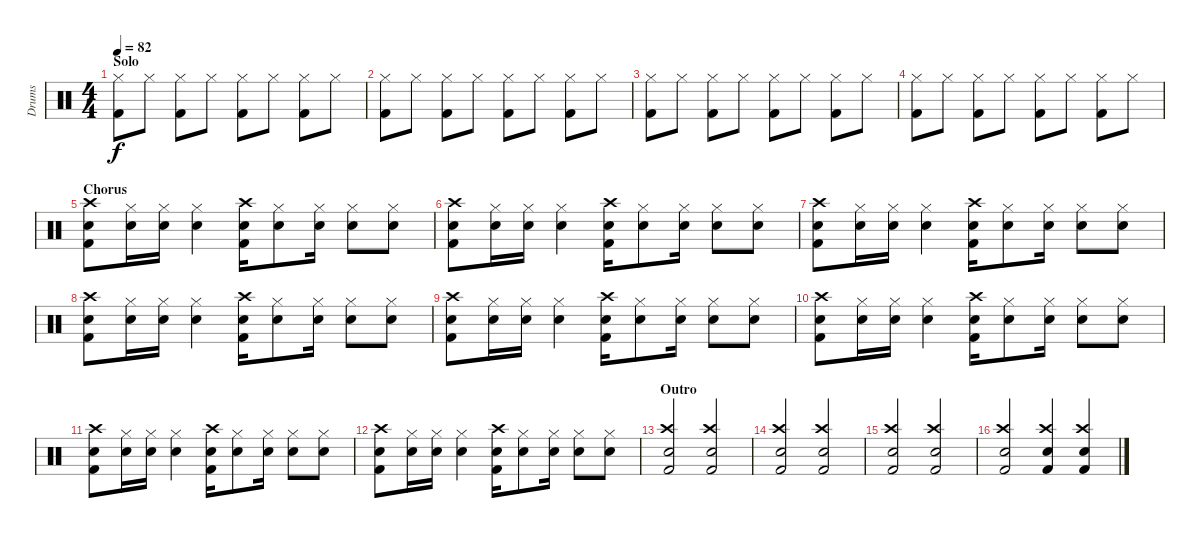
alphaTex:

\track ("Drums" "Drums") {instrument percussion}
\staff {score}
\articulation defaults
\ts (4 4)
\section ("" "Solo")
\tempo 82
\clef neutral
\ks c
("Hi-Hat (closed)" "Kick (hit) 2").8{dy f} "Hi-Hat (closed)".8 ("Hi-Hat (closed)" "Kick (hit) 2").8 "Hi-Hat (closed)".8 ("Hi-Hat (closed)" "Kick (hit) 2").8 "Hi-Hat (closed)".8 ("Hi-Hat (closed)" "Kick (hit) 2").8 "Hi-Hat (closed)".8 |
("Hi-Hat (closed)" "Kick (hit) 2").8 "Hi-Hat (closed)".8 ("Hi-Hat (closed)" "Kick (hit) 2").8 "Hi-Hat (closed)".8 ("Hi-Hat (closed)" "Kick (hit) 2").8 "Hi-Hat (closed)".8 ("Hi-Hat (closed)" "Kick (hit) 2").8 "Hi-Hat (closed)".8 |
("Hi-Hat (closed)" "Kick (hit) 2").8 "Hi-Hat (closed)".8 ("Hi-Hat (closed)" "Kick (hit) 2").8 "Hi-Hat (closed)".8 ("Hi-Hat (closed)" "Kick (hit) 2").8 "Hi-Hat (closed)".8 ("Hi-Hat (closed)" "Kick (hit) 2").8 "Hi-Hat (closed)".8 |
("Hi-Hat (closed)" "Kick (hit) 2").8 "Hi-Hat (closed)".8 ("Hi-Hat (closed)" "Kick (hit) 2").8 "Hi-Hat (closed)".8 ("Hi-Hat (closed)" "Kick (hit) 2").8 "Hi-Hat (closed)".8 ("Hi-Hat (closed)" "Kick (hit) 2").8 "Hi-Hat (closed)".8 |
\section ("" "Chorus")
("Crash high (hit)" "Snare (hit) 2" "Kick (hit) 2").8 ("Hi-Hat (closed)" "Snare (hit) 2").16 ("Hi-Hat (closed)" "Snare (hit) 2").16 ("Hi-Hat (closed)" "Snare (hit) 2").4 ("Crash high (hit)" "Snare (hit) 2" "Kick (hit) 2").16 ("Hi-Hat (closed)" "Snare (hit) 2").8 ("Hi-Hat (closed)" "Snare (hit) 2").16 ("Hi-Hat (closed)" "Snare (hit) 2").8 ("Hi-Hat (closed)" "Snare (hit) 2").8 |
("Crash high (hit)" "Snare (hit) 2" "Kick (hit) 2").8 ("Hi-Hat (closed)" "Snare (hit) 2").16 ("Hi-Hat (closed)" "Snare (hit) 2").16 ("Hi-Hat (closed)" "Snare (hit) 2").4 ("Crash high (hit)" "Snare (hit) 2" "Kick (hit) 2").16 ("Hi-Hat (closed)" "Snare (hit) 2").8 ("Hi-Hat (closed)" "Snare (hit) 2").16 ("Hi-Hat (closed)" "Snare (hit) 2").8 ("Hi-Hat (closed)" "Snare (hit) 2").8 |
("Crash high (hit)" "Snare (hit) 2" "Kick (hit) 2").8 ("Hi-Hat (closed)" "Snare (hit) 2").16 ("Hi-Hat (closed)" "Snare (hit) 2").16 ("Hi-Hat (closed)" "Snare (hit) 2").4 ("Crash high (hit)" "Snare (hit) 2" "Kick (hit) 2").16 ("Hi-Hat (closed)" "Snare (hit) 2").8 ("Hi-Hat (closed)" "Snare (hit) 2").16 ("Hi-Hat (closed)" "Snare (hit) 2").8 ("Hi-Hat (closed)" "Snare (hit) 2").8 |
("Crash high (hit)" "Snare (hit) 2" "Kick (hit) 2").8 ("Hi-Hat (closed)" "Snare (hit) 2").16 ("Hi-Hat (closed)" "Snare (hit) 2").16 ("Hi-Hat (closed)" "Snare (hit) 2").4 ("Crash high (hit)" "Snare (hit) 2" "Kick (hit) 2").16 ("Hi-Hat (closed)" "Snare (hit) 2").8 ("Hi-Hat (closed)" "Snare (hit) 2").16 ("Hi-Hat (closed)" "Snare (hit) 2").8 ("Hi-Hat (closed)" "Snare (hit) 2").8 |
("Crash high (hit)" "Snare (hit) 2" "Kick (hit) 2").8 ("Hi-Hat (closed)" "Snare (hit) 2").16 ("Hi-Hat (closed)" "Snare (hit) 2").16 ("Hi-Hat (closed)" "Snare (hit) 2").4 ("Crash high (hit)" "Snare (hit) 2" "Kick (hit) 2").16 ("Hi-Hat (closed)" "Snare (hit) 2").8 ("Hi-Hat (closed)" "Snare (hit) 2").16 ("Hi-Hat (closed)" "Snare (hit) 2").8 ("Hi-Hat (closed)" "Snare (hit) 2").8 |
("Crash high (hit)" "Snare (hit) 2" "Kick (hit) 2").8 ("Hi-Hat (closed)" "Snare (hit) 2").16 ("Hi-Hat (closed)" "Snare (hit) 2").16 ("Hi-Hat (closed)" "Snare (hit) 2").4 ("Crash high (hit)" "Snare (hit) 2" "Kick (hit) 2").16 ("Hi-Hat (closed)" "Snare (hit) 2").8 ("Hi-Hat (closed)" "Snare (hit) 2").16 ("Hi-Hat (closed)" "Snare (hit) 2").8 ("Hi-Hat (closed)" "Snare (hit) 2").8 |
("Crash high (hit)" "Snare (hit) 2" "Kick (hit) 2").8 ("Hi-Hat (closed)" "Snare (hit) 2").16 ("Hi-Hat (closed)" "Snare (hit) 2").16 ("Hi-Hat (closed)" "Snare (hit) 2").4 ("Crash high (hit)" "Snare (hit) 2" "Kick (hit) 2").16 ("Hi-Hat (closed)" "Snare (hit) 2").8 ("Hi-Hat (closed)" "Snare (hit) 2").16 ("Hi-Hat (closed)" "Snare (hit) 2").8 ("Hi-Hat (closed)" "Snare (hit) 2").8 |
("Crash high (hit)" "Snare (hit) 2" "Kick (hit) 2").8 ("Hi-Hat (closed)" "Snare (hit) 2").16 ("Hi-Hat (closed)" "Snare (hit) 2").16 ("Hi-Hat (closed)" "Snare (hit) 2").4 ("Crash high (hit)" "Snare (hit) 2" "Kick (hit) 2").16 ("Hi-Hat (closed)" "Snare (hit) 2").8 ("Hi-Hat (closed)" "Snare (hit) 2").16 ("Hi-Hat (closed)" "Snare (hit) 2").8 ("Hi-Hat (closed)" "Snare (hit) 2").8 |
\section ("" "Outro")
("Crash high (hit)" "Snare (hit) 2" "Kick (hit) 2").2 ("Crash high (hit)" "Snare (hit) 2" "Kick (hit) 2").2 |
("Crash high (hit)" "Snare (hit) 2" "Kick (hit) 2").2 ("Crash high (hit)" "Snare (hit) 2" "Kick (hit) 2").2 |
("Crash high (hit)" "Snare (hit) 2" "Kick (hit) 2").2 ("Crash high (hit)" "Snare (hit) 2" "Kick (hit) 2").2 |
("Crash high (hit)" "Snare (hit) 2" "Kick (hit) 2").2 ("Crash high (hit)" "Snare (hit) 2" "Kick (hit) 2").4 ("Crash high (hit)" "Snare (hit) 2" "Kick (hit) 2").4
